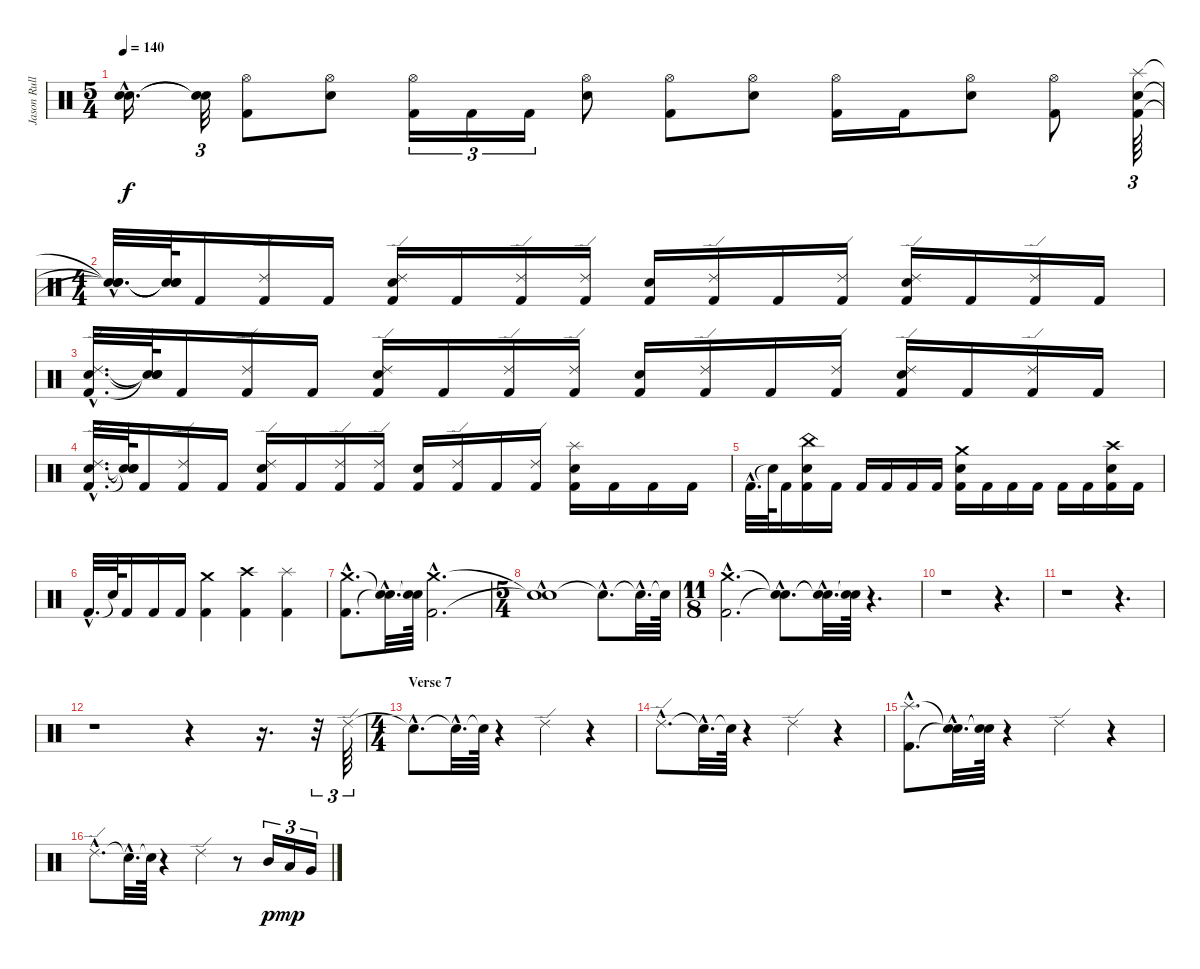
\track ("Jason Rullo" "Jason Rull") {instrument percussion}
\staff {score}
\articulation defaults
\ts (5 4)
\tempo 140
\clef neutral
\ks c
("Snare (hit)"{hac t} "Snare (hit)"{hac t}).16{d dy f} ("Snare (hit)"{t} "Snare (hit)"{t}).32{tu (3 2)} ("Kick (hit) 2" "Hi-Hat (open)").8 ("Electric Snare (hit)" "Hi-Hat (open)").8 ("Kick (hit) 2" "Hi-Hat (open)").16{tu (3 2)} "Kick (hit) 2".16{tu (3 2)} "Kick (hit) 2".16{tu (3 2)} ("Electric Snare (hit)" "Hi-Hat (open)").8 ("Kick (hit) 2" "Hi-Hat (open)").8 ("Electric Snare (hit)" "Hi-Hat (open)").8 ("Kick (hit) 2" "Hi-Hat (open)").16 "Kick (hit) 2".16 ("Electric Snare (hit)" "Hi-Hat (open)").8 ("Kick (hit) 2" "Hi-Hat (open)").8 ("Splash (hit)" "Kick (hit) 2" "Electric Snare (hit)").64{tu (3 2)} |
\ts (4 4)
("Snare (hit)"{hac t} "Snare (hit)"{hac t} "Snare (hit)"{hac t}).32{d} ("Snare (hit)"{t} "Snare (hit)"{t} "Snare (hit)"{t}).64 "Kick (hit) 2".16 ("Ride (edge) 2" "Kick (hit) 2").16 "Kick (hit) 2".16 ("Ride (edge) 2" "Electric Snare (hit)" "Kick (hit) 2").16 "Kick (hit) 2".16 ("Ride (edge) 2" "Kick (hit) 2").16 ("Ride (edge) 2" "Kick (hit) 2").16 ("Electric Snare (hit)" "Kick (hit) 2").16 ("Ride (edge) 2" "Kick (hit) 2").16 "Kick (hit) 2".16 ("Ride (edge) 2" "Kick (hit) 2").16 ("Ride (edge) 2" "Electric Snare (hit)" "Kick (hit) 2").16 "Kick (hit) 2".16 ("Ride (edge) 2" "Kick (hit) 2").16 "Kick (hit) 2".16 |
("Ride (edge) 2"{hac} "Kick (hit) 2"{hac} "Electric Snare (hit)"{hac}).32{d} ("Snare (hit)"{t} "Snare (hit)"{t} "Snare (hit)"{t}).64 "Kick (hit) 2".16 ("Ride (edge) 2" "Kick (hit) 2").16 "Kick (hit) 2".16 ("Ride (edge) 2" "Electric Snare (hit)" "Kick (hit) 2").16 "Kick (hit) 2".16 ("Ride (edge) 2" "Kick (hit) 2").16 ("Ride (edge) 2" "Kick (hit) 2").16 ("Electric Snare (hit)" "Kick (hit) 2").16 ("Ride (edge) 2" "Kick (hit) 2").16 "Kick (hit) 2".16 ("Ride (edge) 2" "Kick (hit) 2").16 ("Ride (edge) 2" "Electric Snare (hit)" "Kick (hit) 2").16 "Kick (hit) 2".16 ("Ride (edge) 2" "Kick (hit) 2").16 "Kick (hit) 2".16 |
("Ride (edge) 2"{hac} "Kick (hit) 2"{hac} "Electric Snare (hit)"{hac}).32{d} ("Snare (hit)"{t} "Snare (hit)"{t} "Snare (hit)"{t}).64 "Kick (hit) 2".16 ("Ride (edge) 2" "Kick (hit) 2").16 "Kick (hit) 2".16 ("Ride (edge) 2" "Electric Snare (hit)" "Kick (hit) 2").16 "Kick (hit) 2".16 ("Ride (edge) 2" "Kick (hit) 2").16 ("Ride (edge) 2" "Kick (hit) 2").16 ("Electric Snare (hit)" "Kick (hit) 2").16 ("Ride (edge) 2" "Kick (hit) 2").16 "Kick (hit) 2".16 ("Ride (edge) 2" "Kick (hit) 2").16 ("Splash (hit)" "Electric Snare (hit)" "Kick (hit) 2").16 "Kick (hit) 2".16 "Kick (hit) 2".16 "Kick (hit) 2".16 |
"Kick (hit) 2"{hac}.32{d} "Snare (hit)"{t}.64 "Kick (hit) 2".16 ("China (hit)" "Kick (hit) 2" "Electric Snare (hit)").16 "Kick (hit) 2".16 "Kick (hit) 2".16 "Kick (hit) 2".16 "Kick (hit) 2".16 "Kick (hit) 2".16 ("Crash medium (hit)" "Electric Snare (hit)" "Kick (hit) 2").16 "Kick (hit) 2".16 "Kick (hit) 2".16 "Kick (hit) 2".16 "Kick (hit) 2".16 "Kick (hit) 2".16 ("Crash high (hit)" "Electric Snare (hit)" "Kick (hit) 2").16 "Kick (hit) 2".16 |
"Kick (hit) 2"{hac}.32{d} "Snare (hit)"{t}.64 "Kick (hit) 2".16 "Kick (hit) 2".16 "Kick (hit) 2".16 ("Crash medium (hit)" "Kick (hit) 2").4 ("Crash high (hit)" "Kick (hit) 2").4 ("Splash (hit)" "Kick (hit) 2").4 |
("Crash medium (hit)"{hac} "Kick (hit) 2"{hac}).8{d} ("Snare (hit)"{hac t} "Snare (hit)"{hac t}).32{d} ("Snare (hit)"{t} "Snare (hit)"{t}).64 ("Crash medium (hit)"{hac} "Kick (hit) 2"{hac}).2{d} |
\ts (5 4)
("Snare (hit)"{t} "Snare (hit)"{hac t}).1 "Snare (hit)"{hac t}.8{d} "Snare (hit)"{hac t}.32{d} "Snare (hit)"{t}.64 |
\ts (11 8)
("Crash medium (hit)"{hac} "Kick (hit) 2"{hac}).2{d} ("Snare (hit)"{hac t} "Snare (hit)"{hac t}).8{d} ("Snare (hit)"{hac t} "Snare (hit)"{hac t}).32{d} ("Snare (hit)"{t} "Snare (hit)"{t}).64 r.4{d} |
r.1 r.4{d} |
r.1 r.4{d} |
r.1 r.4 r.16{d} r.32{tu (3 2)} "Ride (edge) 2".64{tu (3 2)} |
\ts (4 4)
\section ("" "Verse 7")
"Snare (hit)"{hac t}.8{d} "Snare (hit)"{hac t}.32{d} "Snare (hit)"{t}.64 r.4 "Ride (edge) 2".4 r.4 |
"Ride (edge) 2"{hac}.8{d} "Snare (hit)"{hac t}.32{d} "Snare (hit)"{t}.64 r.4 "Ride (edge) 2".4 r.4 |
("Splash (hit)"{hac} "Kick (hit) 2"{hac}).8{d} ("Snare (hit)"{hac t} "Snare (hit)"{hac t}).32{d} ("Snare (hit)"{t} "Snare (hit)"{t}).64 r.4 "Ride (edge) 2".4 r.4 |
"Ride (edge) 2"{hac}.8{d} "Snare (hit)"{hac t}.32{d} "Snare (hit)"{t}.64 r.4 "Ride (edge) 2".4 r.8 "Mid Tom (hit)".16{tu (3 2) dy p} "Low Tom (hit)".16{tu (3 2) dy mp} "Very Low Tom (hit)".16{tu (3 2)}
